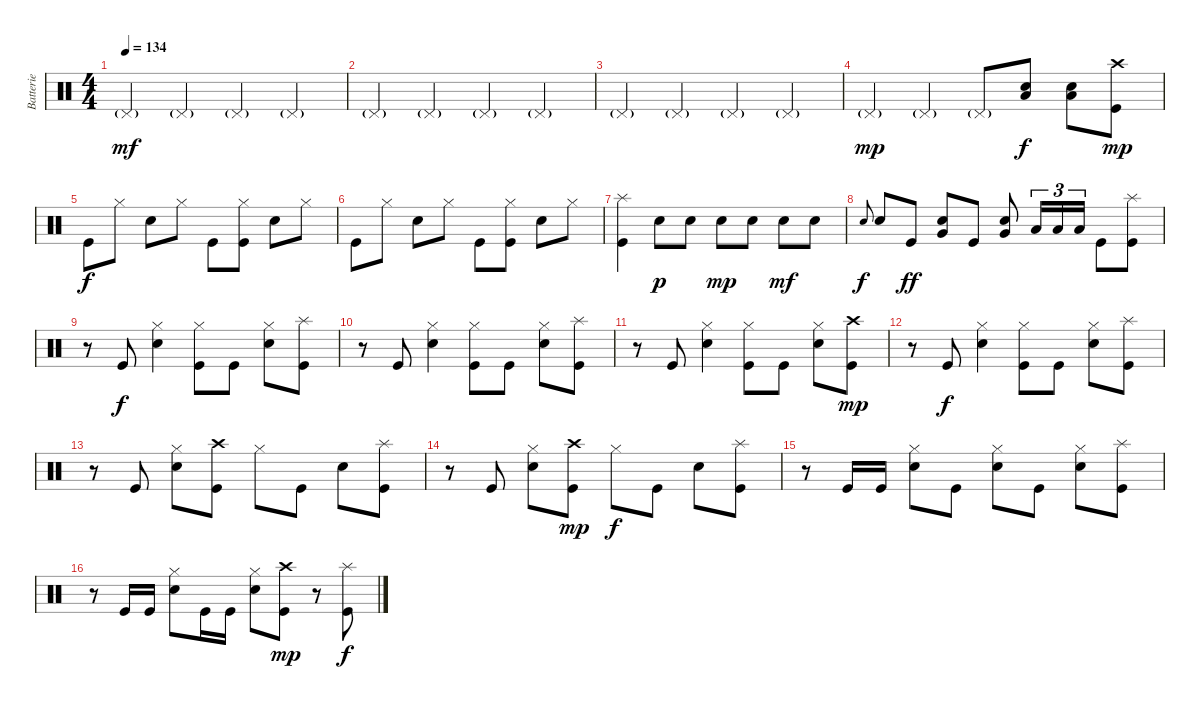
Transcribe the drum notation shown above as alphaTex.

\track ("Batterie" "Batterie") {instrument percussion}
\staff {score}
\articulation defaults
\ts (4 4)
\tempo 134
\clef neutral
\ks c "Pedal Hi-Hat (hit)"{g}.4{dy mf} "Pedal Hi-Hat (hit)"{g}.4 "Pedal Hi-Hat (hit)"{g}.4 "Pedal Hi-Hat (hit)"{g}.4
|
"Pedal Hi-Hat (hit)"{g}.4 "Pedal Hi-Hat (hit)"{g}.4 "Pedal Hi-Hat (hit)"{g}.4 "Pedal Hi-Hat (hit)"{g}.4 |
"Pedal Hi-Hat (hit)"{g}.4 "Pedal Hi-Hat (hit)"{g}.4 "Pedal Hi-Hat (hit)"{g}.4 "Pedal Hi-Hat (hit)"{g}.4 |
"Pedal Hi-Hat (hit)"{g}.4{dy mp} "Pedal Hi-Hat (hit)"{g}.4 "Pedal Hi-Hat (hit)"{g}.8 ("Snare (hit) 2" "Low Floor Tom (hit)").8{dy f} ("Snare (hit) 2" "Low Floor Tom (hit)").8 ("Crash high (hit)" "Kick (hit)").8{dy mp} |
"Kick (hit)".8{dy f} "Hi-Hat (closed)".8 "Snare (hit) 2".8 "Hi-Hat (closed)".8 "Kick (hit)".8 ("Hi-Hat (closed)" "Kick (hit)").8 "Snare (hit) 2".8 "Hi-Hat (closed)".8 |
"Kick (hit)".8 "Hi-Hat (closed)".8 "Snare (hit) 2".8 "Hi-Hat (closed)".8 "Kick (hit)".8 ("Hi-Hat (closed)" "Kick (hit)").8 "Snare (hit) 2".8 "Hi-Hat (closed)".8 |
("Splash (hit)" "Kick (hit)").4 "Snare (hit) 2".8{dy p} "Snare (hit) 2".8 "Snare (hit) 2".8{dy mp} "Snare (hit) 2".8 "Snare (hit) 2".8{dy mf} "Snare (hit) 2".8 |
"Snare (hit) 2".8{gr onbeat dy f} "Snare (hit) 2".8 "Kick (hit)".8{dy ff} ("Snare (hit) 2" "Very Low Tom (hit)").8 "Kick (hit)".8 ("Snare (hit) 2" "Very Low Tom (hit)").8 "Low Floor Tom (hit)".16{tu (3 2)} "Low Floor Tom (hit)".16{tu (3 2)} "Low Floor Tom (hit)".16{tu (3 2)} "Kick (hit)".8 ("Splash (hit)" "Kick (hit)").8 |
r.8 "Kick (hit)".8{dy f} ("Hi-Hat (closed)" "Snare (hit) 2").4 ("Hi-Hat (closed)" "Kick (hit)").8 "Kick (hit)".8 ("Hi-Hat (closed)" "Snare (hit) 2").8 ("Splash (hit)" "Kick (hit)").8 |
r.8 "Kick (hit)".8 ("Hi-Hat (closed)" "Snare (hit) 2").4 ("Hi-Hat (closed)" "Kick (hit)").8 "Kick (hit)".8 ("Hi-Hat (closed)" "Snare (hit) 2").8 ("Splash (hit)" "Kick (hit)").8 |
r.8 "Kick (hit)".8 ("Hi-Hat (closed)" "Snare (hit) 2").4 ("Hi-Hat (closed)" "Kick (hit)").8 "Kick (hit)".8 ("Hi-Hat (closed)" "Snare (hit) 2").8 ("Crash high (hit)" "Kick (hit)").8{dy mp} |
r.8 "Kick (hit)".8{dy f} ("Hi-Hat (closed)" "Snare (hit) 2").4 ("Hi-Hat (closed)" "Kick (hit)").8 "Kick (hit)".8 ("Hi-Hat (closed)" "Snare (hit) 2").8 ("Splash (hit)" "Kick (hit)").8 |
r.8 "Kick (hit)".8 ("Hi-Hat (closed)" "Snare (hit) 2").8 ("Crash high (hit)" "Kick (hit)").8 "Hi-Hat (closed)".8 "Kick (hit)".8 "Snare (hit) 2".8 ("Splash (hit)" "Kick (hit)").8 |
r.8 "Kick (hit)".8 ("Hi-Hat (closed)" "Snare (hit) 2").8 ("Crash high (hit)" "Kick (hit)").8{dy mp} "Hi-Hat (closed)".8{dy f} "Kick (hit)".8 "Snare (hit) 2".8 ("Splash (hit)" "Kick (hit)").8 |
r.8 "Kick (hit)".16 "Kick (hit)".16 ("Hi-Hat (closed)" "Snare (hit) 2").8 "Kick (hit)".8 ("Hi-Hat (closed)" "Snare (hit) 2").8 "Kick (hit)".8 ("Hi-Hat (closed)" "Snare (hit) 2").8 ("Splash (hit)" "Kick (hit)").8 |
r.8 "Kick (hit)".16 "Kick (hit)".16 ("Hi-Hat (closed)" "Snare (hit) 2").8 "Kick (hit)".16 "Kick (hit)".16 ("Hi-Hat (closed)" "Snare (hit) 2").8 ("Crash high (hit)" "Kick (hit)").8{dy mp} r.8 ("Splash (hit)" "Kick (hit)").8{dy f}
